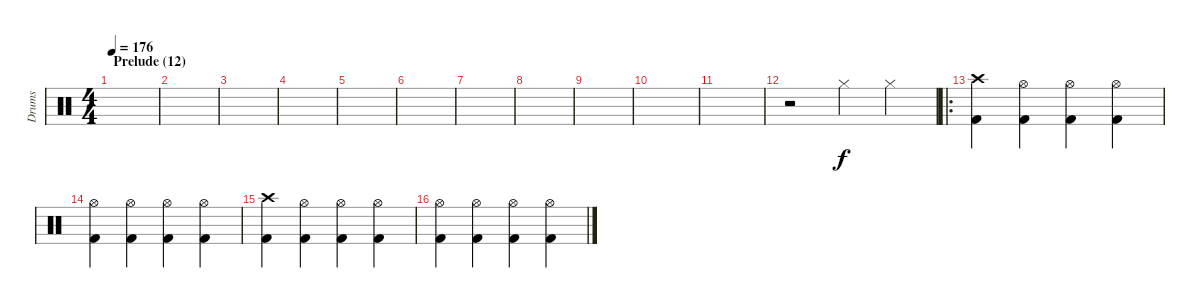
\track ("Drums" "Drums") {instrument percussion}
\staff {score}
\articulation defaults
\ts (4 4)
\section ("" "Prelude (12)")
\tempo 176
\clef neutral
\ks c
|
|
|
|
|
|
|
|
|
|
|
r.2 "Hi-Hat (closed)".4 "Hi-Hat (closed)".4 |
\ro
("Crash high (hit)" "Kick (hit) 2").4 ("Hi-Hat (open)" "Kick (hit) 2").4 ("Hi-Hat (open)" "Kick (hit) 2").4 ("Hi-Hat (open)" "Kick (hit) 2").4 |
("Hi-Hat (open)" "Kick (hit) 2").4 ("Hi-Hat (open)" "Kick (hit) 2").4 ("Hi-Hat (open)" "Kick (hit) 2").4 ("Hi-Hat (open)" "Kick (hit) 2").4 |
("Crash high (hit)" "Kick (hit) 2").4 ("Hi-Hat (open)" "Kick (hit) 2").4 ("Hi-Hat (open)" "Kick (hit) 2").4 ("Hi-Hat (open)" "Kick (hit) 2").4 |
("Hi-Hat (open)" "Kick (hit) 2").4 ("Hi-Hat (open)" "Kick (hit) 2").4 ("Hi-Hat (open)" "Kick (hit) 2").4 ("Hi-Hat (open)" "Kick (hit) 2").4
